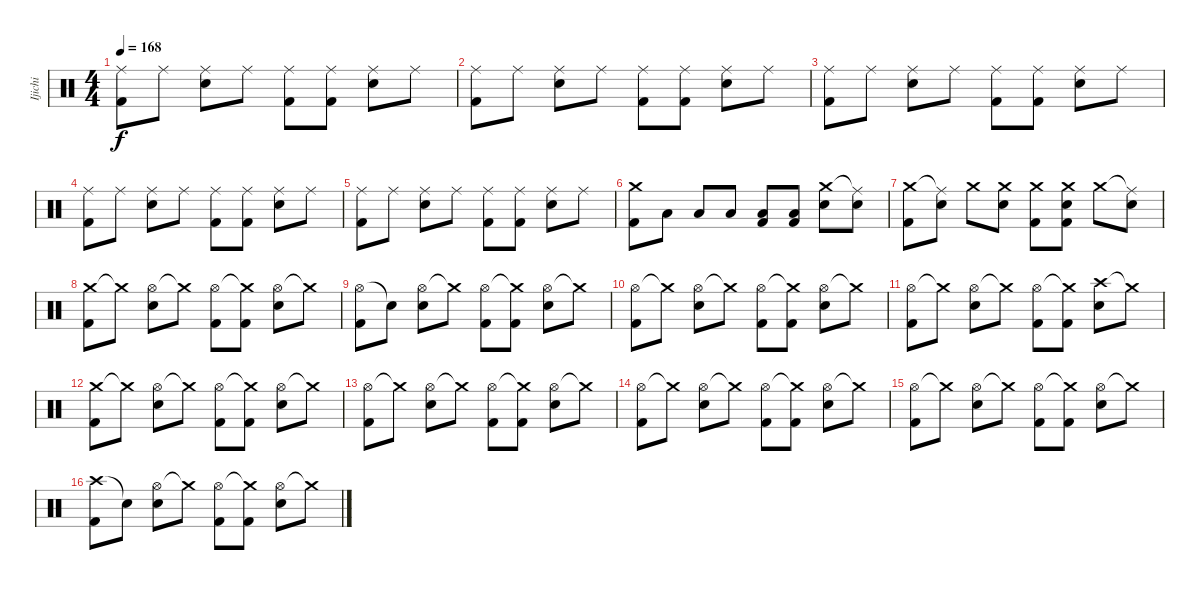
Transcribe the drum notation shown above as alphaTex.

\track ("Ijichi" "Ijichi") {instrument percussion}
\staff {score}
\articulation defaults
\ts (4 4)
\tempo 168
\clef neutral
\ks c
("Ride (middle)" "Kick (hit) 2").8{dy f} "Ride (middle)".8 ("Ride (middle)" "Electric Snare (hit)").8 "Ride (middle)".8 ("Ride (middle)" "Kick (hit) 2").8 ("Ride (middle)" "Kick (hit) 2").8 ("Ride (middle)" "Electric Snare (hit)").8 "Ride (middle)".8 |
("Ride (middle)" "Kick (hit) 2").8 "Ride (middle)".8 ("Ride (middle)" "Electric Snare (hit)").8 "Ride (middle)".8 ("Ride (middle)" "Kick (hit) 2").8 ("Ride (middle)" "Kick (hit) 2").8 ("Ride (middle)" "Electric Snare (hit)").8 "Ride (middle)".8 |
("Ride (middle)" "Kick (hit) 2").8 "Ride (middle)".8 ("Ride (middle)" "Electric Snare (hit)").8 "Ride (middle)".8 ("Ride (middle)" "Kick (hit) 2").8 ("Ride (middle)" "Kick (hit) 2").8 ("Ride (middle)" "Electric Snare (hit)").8 "Ride (middle)".8 |
("Ride (middle)" "Kick (hit) 2").8 "Ride (middle)".8 ("Ride (middle)" "Electric Snare (hit)").8 "Ride (middle)".8 ("Ride (middle)" "Kick (hit) 2").8 ("Ride (middle)" "Kick (hit) 2").8 ("Ride (middle)" "Electric Snare (hit)").8 "Ride (middle)".8 |
("Ride (middle)" "Kick (hit) 2").8 "Ride (middle)".8 ("Ride (middle)" "Electric Snare (hit)").8 "Ride (middle)".8 ("Ride (middle)" "Kick (hit) 2").8 ("Ride (middle)" "Kick (hit) 2").8 ("Ride (middle)" "Electric Snare (hit)").8 "Ride (middle)".8 |
("Crash medium (hit)" "Kick (hit) 2").8 "Low Floor Tom (hit)".8 "Low Floor Tom (hit)".8 "Low Floor Tom (hit)".8 ("Low Floor Tom (hit)" "Kick (hit) 2").8 ("Low Floor Tom (hit)" "Kick (hit) 2").8 ("Crash medium (hit)" "Electric Snare (hit)").8 ("Ride (middle)"{t} "Electric Snare (hit)").8 |
("Crash medium (hit)" "Kick (hit) 2").8 ("Ride (middle)"{t} "Electric Snare (hit)").8 "Crash medium (hit)".8 ("Crash medium (hit)" "Electric Snare (hit)").8 ("Crash medium (hit)" "Kick (hit) 2").8 ("Crash medium (hit)" "Electric Snare (hit)" "Kick (hit) 2").8 "Crash medium (hit)".8 ("Ride (middle)"{t} "Electric Snare (hit)").8 |
("Crash medium (hit)" "Kick (hit) 2").8 "Crash medium (hit)"{t}.8 ("Hi-Hat (open)" "Electric Snare (hit)").8 "Crash medium (hit)"{t}.8 ("Hi-Hat (open)" "Kick (hit) 2").8 ("Crash medium (hit)"{t} "Kick (hit) 2").8 ("Hi-Hat (open)" "Electric Snare (hit)").8 "Crash medium (hit)"{t}.8 |
("Hi-Hat (open)" "Kick (hit) 2").8 "Snare (hit)"{t}.8 ("Hi-Hat (open)" "Electric Snare (hit)").8 "Crash medium (hit)"{t}.8 ("Hi-Hat (open)" "Kick (hit) 2").8 ("Crash medium (hit)"{t} "Kick (hit) 2").8 ("Hi-Hat (open)" "Electric Snare (hit)").8 "Crash medium (hit)"{t}.8 |
("Hi-Hat (open)" "Kick (hit) 2").8 "Crash medium (hit)"{t}.8 ("Hi-Hat (open)" "Electric Snare (hit)").8 "Crash medium (hit)"{t}.8 ("Hi-Hat (open)" "Kick (hit) 2").8 ("Crash medium (hit)"{t} "Kick (hit) 2").8 ("Hi-Hat (open)" "Electric Snare (hit)").8 "Crash medium (hit)"{t}.8 |
("Hi-Hat (open)" "Kick (hit) 2").8 "Crash medium (hit)"{t}.8 ("Hi-Hat (open)" "Electric Snare (hit)").8 "Crash medium (hit)"{t}.8 ("Hi-Hat (open)" "Kick (hit) 2").8 ("Crash medium (hit)"{t} "Kick (hit) 2").8 ("Crash high (hit)" "Electric Snare (hit)").8 "Crash medium (hit)"{t}.8 |
("Crash medium (hit)" "Kick (hit) 2").8 "Crash medium (hit)"{t}.8 ("Hi-Hat (open)" "Electric Snare (hit)").8 "Crash medium (hit)"{t}.8 ("Hi-Hat (open)" "Kick (hit) 2").8 ("Crash medium (hit)"{t} "Kick (hit) 2").8 ("Hi-Hat (open)" "Electric Snare (hit)").8 "Crash medium (hit)"{t}.8 |
("Hi-Hat (open)" "Kick (hit) 2").8 "Crash medium (hit)"{t}.8 ("Hi-Hat (open)" "Electric Snare (hit)").8 "Crash medium (hit)"{t}.8 ("Hi-Hat (open)" "Kick (hit) 2").8 ("Crash medium (hit)"{t} "Kick (hit) 2").8 ("Hi-Hat (open)" "Electric Snare (hit)").8 "Crash medium (hit)"{t}.8 |
("Hi-Hat (open)" "Kick (hit) 2").8 "Crash medium (hit)"{t}.8 ("Hi-Hat (open)" "Electric Snare (hit)").8 "Crash medium (hit)"{t}.8 ("Hi-Hat (open)" "Kick (hit) 2").8 ("Crash medium (hit)"{t} "Kick (hit) 2").8 ("Hi-Hat (open)" "Electric Snare (hit)").8 "Crash medium (hit)"{t}.8 |
("Hi-Hat (open)" "Kick (hit) 2").8 "Crash medium (hit)"{t}.8 ("Hi-Hat (open)" "Electric Snare (hit)").8 "Crash medium (hit)"{t}.8 ("Hi-Hat (open)" "Kick (hit) 2").8 ("Crash medium (hit)"{t} "Kick (hit) 2").8 ("Hi-Hat (open)" "Electric Snare (hit)").8 "Crash medium (hit)"{t}.8 |
("Crash high (hit)" "Kick (hit) 2").8 "Snare (hit)"{t}.8 ("Hi-Hat (open)" "Electric Snare (hit)").8 "Crash medium (hit)"{t}.8 ("Hi-Hat (open)" "Kick (hit) 2").8 ("Crash medium (hit)"{t} "Kick (hit) 2").8 ("Hi-Hat (open)" "Electric Snare (hit)").8 "Crash medium (hit)"{t}.8
